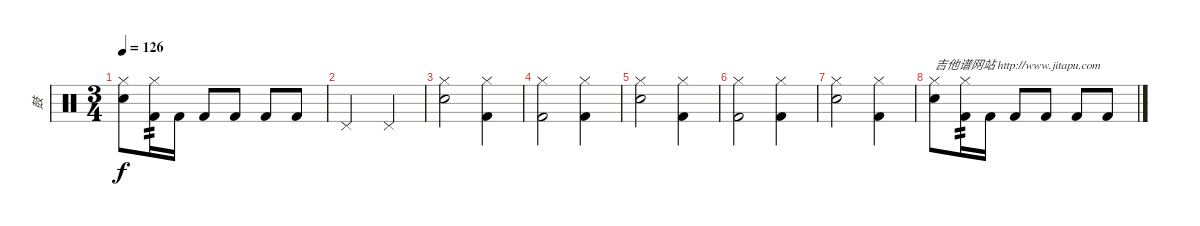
\track ("鼓" "鼓") {instrument percussion}
\staff {score}
\articulation defaults
\ts (3 4)
\tempo 126
\clef neutral
\ks c
("Snare (hit) 2" "Hi-Hat (closed)").8{dy f} ("Kick (hit) 2" "Hi-Hat (closed)").16{tp 2} "Kick (hit) 2".16 "Kick (hit) 2".8 "Kick (hit) 2".8 "Kick (hit) 2".8 "Kick (hit) 2".8 |
"Pedal Hi-Hat (hit)".2 "Pedal Hi-Hat (hit)".4 |
("Snare (hit) 2" "Hi-Hat (closed)").2 ("Kick (hit) 2" "Hi-Hat (closed)").4 |
("Kick (hit) 2" "Hi-Hat (closed)").2 ("Kick (hit) 2" "Hi-Hat (closed)").4 |
("Snare (hit) 2" "Hi-Hat (closed)").2 ("Kick (hit) 2" "Hi-Hat (closed)").4 |
("Kick (hit) 2" "Hi-Hat (closed)").2 ("Kick (hit) 2" "Hi-Hat (closed)").4 |
("Snare (hit) 2" "Hi-Hat (closed)").2{volume 8} ("Kick (hit) 2" "Hi-Hat (closed)").4 |
("Snare (hit) 2" "Hi-Hat (closed)").8{txt "吉他谱网站 http://www.jitapu.com" volume 5} ("Kick (hit) 2" "Hi-Hat (closed)").16{tp 2} "Kick (hit) 2".16 "Kick (hit) 2".8 "Kick (hit) 2".8 "Kick (hit) 2".8 "Kick (hit) 2".8
